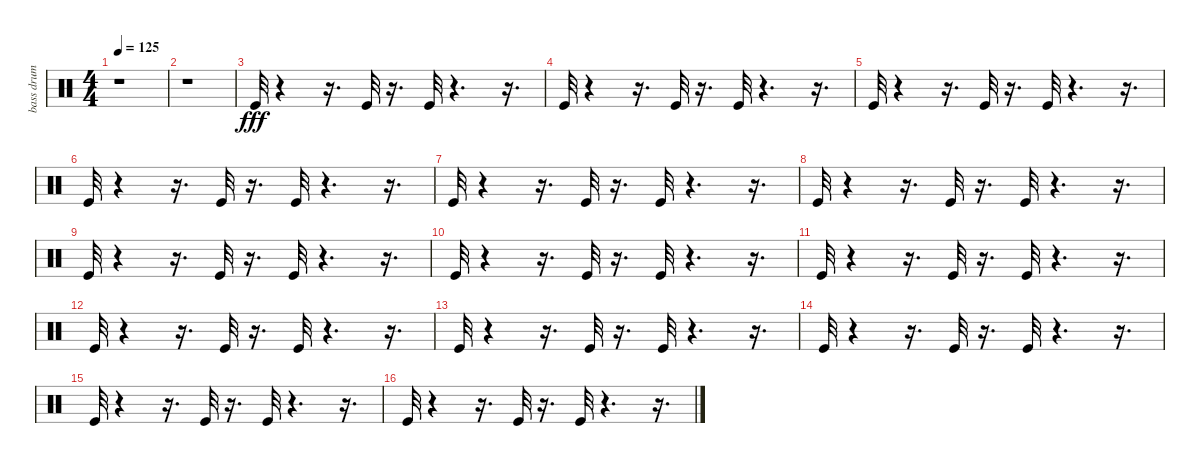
\track ("bass drum" "bass drum") {instrument percussion}
\staff {score}
\articulation defaults
\ts (4 4)
\tempo 125
\clef neutral
\ks c
r.1{dy fff} |
r.1 |
"Kick (hit)".32 r.4 r.16{d} "Kick (hit)".32 r.16{d} "Kick (hit)".32 r.4{d} r.16{d} |
"Kick (hit)".32 r.4 r.16{d} "Kick (hit)".32 r.16{d} "Kick (hit)".32 r.4{d} r.16{d} |
"Kick (hit)".32 r.4 r.16{d} "Kick (hit)".32 r.16{d} "Kick (hit)".32 r.4{d} r.16{d} |
"Kick (hit)".32 r.4 r.16{d} "Kick (hit)".32 r.16{d} "Kick (hit)".32 r.4{d} r.16{d} |
"Kick (hit)".32 r.4 r.16{d} "Kick (hit)".32 r.16{d} "Kick (hit)".32 r.4{d} r.16{d} |
"Kick (hit)".32 r.4 r.16{d} "Kick (hit)".32 r.16{d} "Kick (hit)".32 r.4{d} r.16{d} |
"Kick (hit)".32 r.4 r.16{d} "Kick (hit)".32 r.16{d} "Kick (hit)".32 r.4{d} r.16{d} |
"Kick (hit)".32 r.4 r.16{d} "Kick (hit)".32 r.16{d} "Kick (hit)".32 r.4{d} r.16{d} |
"Kick (hit)".32 r.4 r.16{d} "Kick (hit)".32 r.16{d} "Kick (hit)".32 r.4{d} r.16{d} |
"Kick (hit)".32 r.4 r.16{d} "Kick (hit)".32 r.16{d} "Kick (hit)".32 r.4{d} r.16{d} |
"Kick (hit)".32 r.4 r.16{d} "Kick (hit)".32 r.16{d} "Kick (hit)".32 r.4{d} r.16{d} |
"Kick (hit)".32 r.4 r.16{d} "Kick (hit)".32 r.16{d} "Kick (hit)".32 r.4{d} r.16{d} |
"Kick (hit)".32 r.4 r.16{d} "Kick (hit)".32 r.16{d} "Kick (hit)".32 r.4{d} r.16{d} |
"Kick (hit)".32 r.4 r.16{d} "Kick (hit)".32 r.16{d} "Kick (hit)".32 r.4{d} r.16{d}
